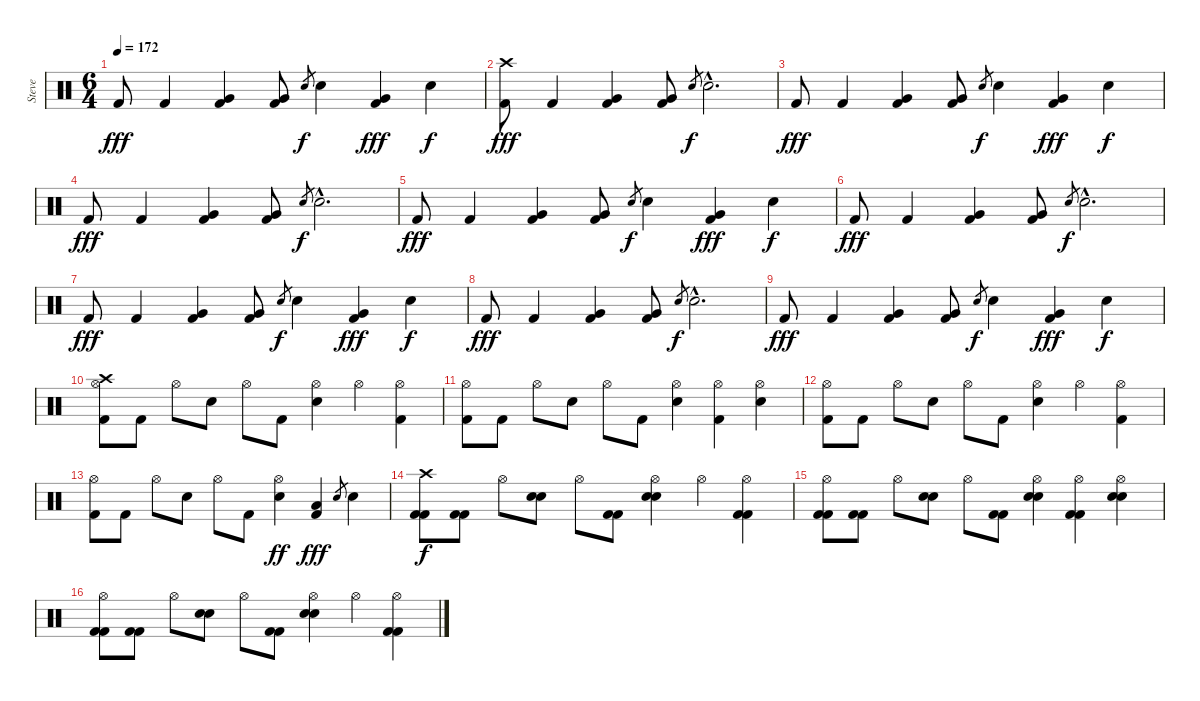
\track ("Steve" "Steve") {instrument percussion}
\staff {score}
\articulation defaults
\ts (6 4)
\tempo 172
\clef neutral
\ks c "Kick (hit) 2".8{dy fff} "Kick (hit) 2".4
("Very Low Tom (hit)" "Kick (hit) 2").4 ("Very Low Tom (hit)" "Kick (hit) 2").8 "Electric Snare (hit)".8{gr dy f} "Electric Snare (hit)".4 ("Very Low Tom (hit)" "Kick (hit) 2").4{dy fff} "Electric Snare (hit)".4{dy f} |
("Crash high (hit)" "Kick (hit) 2").8{dy fff} "Kick (hit) 2".4 ("Very Low Tom (hit)" "Kick (hit) 2").4 ("Very Low Tom (hit)" "Kick (hit) 2").8 "Electric Snare (hit)".8{gr dy f} "Electric Snare (hit)"{hac}.2{d} |
"Kick (hit) 2".8{dy fff} "Kick (hit) 2".4 ("Very Low Tom (hit)" "Kick (hit) 2").4 ("Very Low Tom (hit)" "Kick (hit) 2").8 "Electric Snare (hit)".8{gr dy f} "Electric Snare (hit)".4 ("Very Low Tom (hit)" "Kick (hit) 2").4{dy fff} "Electric Snare (hit)".4{dy f} |
"Kick (hit) 2".8{dy fff} "Kick (hit) 2".4 ("Very Low Tom (hit)" "Kick (hit) 2").4 ("Very Low Tom (hit)" "Kick (hit) 2").8 "Electric Snare (hit)".8{gr dy f} "Electric Snare (hit)"{hac}.2{d} |
"Kick (hit) 2".8{dy fff} "Kick (hit) 2".4 ("Very Low Tom (hit)" "Kick (hit) 2").4 ("Very Low Tom (hit)" "Kick (hit) 2").8 "Electric Snare (hit)".8{gr dy f} "Electric Snare (hit)".4 ("Very Low Tom (hit)" "Kick (hit) 2").4{dy fff} "Electric Snare (hit)".4{dy f} |
"Kick (hit) 2".8{dy fff} "Kick (hit) 2".4 ("Very Low Tom (hit)" "Kick (hit) 2").4 ("Very Low Tom (hit)" "Kick (hit) 2").8 "Electric Snare (hit)".8{gr dy f} "Electric Snare (hit)"{hac}.2{d} |
"Kick (hit) 2".8{dy fff} "Kick (hit) 2".4 ("Very Low Tom (hit)" "Kick (hit) 2").4 ("Very Low Tom (hit)" "Kick (hit) 2").8 "Electric Snare (hit)".8{gr dy f} "Electric Snare (hit)".4 ("Very Low Tom (hit)" "Kick (hit) 2").4{dy fff} "Electric Snare (hit)".4{dy f} |
"Kick (hit) 2".8{dy fff} "Kick (hit) 2".4 ("Very Low Tom (hit)" "Kick (hit) 2").4 ("Very Low Tom (hit)" "Kick (hit) 2").8 "Electric Snare (hit)".8{gr dy f} "Electric Snare (hit)"{hac}.2{d} |
"Kick (hit) 2".8{dy fff} "Kick (hit) 2".4 ("Very Low Tom (hit)" "Kick (hit) 2").4 ("Very Low Tom (hit)" "Kick (hit) 2").8 "Electric Snare (hit)".8{gr dy f} "Electric Snare (hit)".4 ("Very Low Tom (hit)" "Kick (hit) 2").4{dy fff} "Electric Snare (hit)".4{dy f} |
("Crash high (hit)" "Hi-Hat (open)" "Kick (hit) 2").8 "Kick (hit) 2".8 "Hi-Hat (open)".8 "Electric Snare (hit)".8 "Hi-Hat (open)".8 "Kick (hit) 2".8 ("Hi-Hat (open)" "Electric Snare (hit)").4 "Hi-Hat (open)".4 ("Hi-Hat (open)" "Kick (hit) 2").4 |
("Hi-Hat (open)" "Kick (hit) 2").8 "Kick (hit) 2".8 "Hi-Hat (open)".8 "Electric Snare (hit)".8 "Hi-Hat (open)".8 "Kick (hit) 2".8 ("Hi-Hat (open)" "Electric Snare (hit)").4 ("Hi-Hat (open)" "Kick (hit) 2").4 ("Hi-Hat (open)" "Electric Snare (hit)").4 |
("Hi-Hat (open)" "Kick (hit) 2").8 "Kick (hit) 2".8 "Hi-Hat (open)".8 "Electric Snare (hit)".8 "Hi-Hat (open)".8 "Kick (hit) 2".8 ("Hi-Hat (open)" "Electric Snare (hit)").4 "Hi-Hat (open)".4 ("Hi-Hat (open)" "Kick (hit) 2").4 |
("Hi-Hat (open)" "Kick (hit) 2").8 "Kick (hit) 2".8 "Hi-Hat (open)".8 "Electric Snare (hit)".8 "Hi-Hat (open)".8 "Kick (hit) 2".8 ("Hi-Hat (open)" "Electric Snare (hit)").4{dy ff} ("Low Tom (hit)" "Kick (hit) 2").4{dy fff} "Electric Snare (hit)".8{gr} "Electric Snare (hit)".4 |
("Crash high (hit)" "Kick (hit) 2" "Kick (hit) 2").8{dy f volume 16} ("Kick (hit) 2" "Kick (hit) 2").8 "Hi-Hat (open)".8 ("Electric Snare (hit)" "Electric Snare (hit)").8 "Hi-Hat (open)".8 ("Kick (hit) 2" "Kick (hit) 2").8 ("Hi-Hat (open)" "Electric Snare (hit)" "Electric Snare (hit)").4 "Hi-Hat (open)".4 ("Hi-Hat (open)" "Kick (hit) 2" "Kick (hit) 2").4 |
("Hi-Hat (open)" "Kick (hit) 2" "Kick (hit) 2").8 ("Kick (hit) 2" "Kick (hit) 2").8 "Hi-Hat (open)".8 ("Electric Snare (hit)" "Electric Snare (hit)").8 "Hi-Hat (open)".8 ("Kick (hit) 2" "Kick (hit) 2").8 ("Hi-Hat (open)" "Electric Snare (hit)" "Electric Snare (hit)").4 ("Hi-Hat (open)" "Kick (hit) 2" "Kick (hit) 2").4 ("Hi-Hat (open)" "Electric Snare (hit)" "Electric Snare (hit)").4 |
("Hi-Hat (open)" "Kick (hit) 2" "Kick (hit) 2").8 ("Kick (hit) 2" "Kick (hit) 2").8 "Hi-Hat (open)".8 ("Electric Snare (hit)" "Electric Snare (hit)").8 "Hi-Hat (open)".8 ("Kick (hit) 2" "Kick (hit) 2").8 ("Hi-Hat (open)" "Electric Snare (hit)" "Electric Snare (hit)").4 "Hi-Hat (open)".4 ("Hi-Hat (open)" "Kick (hit) 2" "Kick (hit) 2").4
